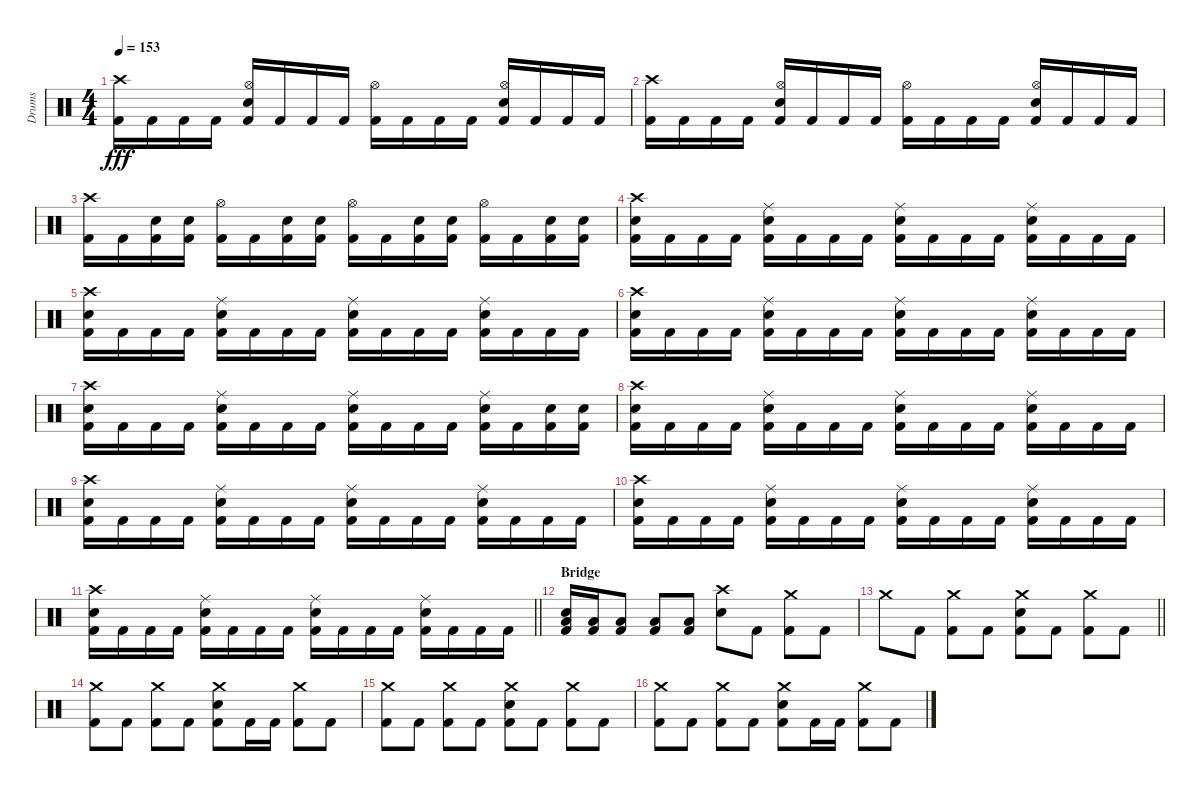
\track ("Drums" "Drums") {instrument percussion}
\staff {score}
\articulation defaults
\ts (4 4)
\tempo 153
\clef neutral
\ks c
("Crash high (hit)" "Kick (hit) 2").16{dy fff} "Kick (hit) 2".16 "Kick (hit) 2".16 "Kick (hit) 2".16 ("Hi-Hat (open)" "Snare (hit) 2" "Kick (hit) 2").16 "Kick (hit) 2".16 "Kick (hit) 2".16 "Kick (hit) 2".16 ("Hi-Hat (open)" "Kick (hit) 2").16 "Kick (hit) 2".16 "Kick (hit) 2".16 "Kick (hit) 2".16 ("Hi-Hat (open)" "Snare (hit) 2" "Kick (hit) 2").16 "Kick (hit) 2".16 "Kick (hit) 2".16 "Kick (hit) 2".16 |
("Crash high (hit)" "Kick (hit) 2").16 "Kick (hit) 2".16 "Kick (hit) 2".16 "Kick (hit) 2".16 ("Hi-Hat (open)" "Snare (hit) 2" "Kick (hit) 2").16 "Kick (hit) 2".16 "Kick (hit) 2".16 "Kick (hit) 2".16 ("Hi-Hat (open)" "Kick (hit) 2").16 "Kick (hit) 2".16 "Kick (hit) 2".16 "Kick (hit) 2".16 ("Hi-Hat (open)" "Snare (hit) 2" "Kick (hit) 2").16 "Kick (hit) 2".16 "Kick (hit) 2".16 "Kick (hit) 2".16 |
("Crash high (hit)" "Kick (hit) 2").16 "Kick (hit) 2".16 ("Snare (hit) 2" "Kick (hit) 2").16 ("Snare (hit) 2" "Kick (hit) 2").16 ("Hi-Hat (open)" "Kick (hit) 2").16 "Kick (hit) 2".16 ("Snare (hit) 2" "Kick (hit) 2").16 ("Snare (hit) 2" "Kick (hit) 2").16 ("Hi-Hat (open)" "Kick (hit) 2").16 "Kick (hit) 2".16 ("Snare (hit) 2" "Kick (hit) 2").16 ("Snare (hit) 2" "Kick (hit) 2").16 ("Hi-Hat (open)" "Kick (hit) 2").16 "Kick (hit) 2".16 ("Snare (hit) 2" "Kick (hit) 2").16 ("Snare (hit) 2" "Kick (hit) 2").16 |
("Crash high (hit)" "Snare (hit) 2" "Kick (hit) 2").16 "Kick (hit) 2".16 "Kick (hit) 2".16 "Kick (hit) 2".16 ("Ride (middle)" "Snare (hit) 2" "Kick (hit) 2").16 "Kick (hit) 2".16 "Kick (hit) 2".16 "Kick (hit) 2".16 ("Ride (middle)" "Snare (hit) 2" "Kick (hit) 2").16 "Kick (hit) 2".16 "Kick (hit) 2".16 "Kick (hit) 2".16 ("Ride (middle)" "Snare (hit) 2" "Kick (hit) 2").16 "Kick (hit) 2".16 "Kick (hit) 2".16 "Kick (hit) 2".16 |
("Crash high (hit)" "Snare (hit) 2" "Kick (hit) 2").16 "Kick (hit) 2".16 "Kick (hit) 2".16 "Kick (hit) 2".16 ("Ride (middle)" "Snare (hit) 2" "Kick (hit) 2").16 "Kick (hit) 2".16 "Kick (hit) 2".16 "Kick (hit) 2".16 ("Ride (middle)" "Snare (hit) 2" "Kick (hit) 2").16 "Kick (hit) 2".16 "Kick (hit) 2".16 "Kick (hit) 2".16 ("Ride (middle)" "Snare (hit) 2" "Kick (hit) 2").16 "Kick (hit) 2".16 "Kick (hit) 2".16 "Kick (hit) 2".16 |
("Crash high (hit)" "Snare (hit) 2" "Kick (hit) 2").16 "Kick (hit) 2".16 "Kick (hit) 2".16 "Kick (hit) 2".16 ("Ride (middle)" "Snare (hit) 2" "Kick (hit) 2").16 "Kick (hit) 2".16 "Kick (hit) 2".16 "Kick (hit) 2".16 ("Ride (middle)" "Snare (hit) 2" "Kick (hit) 2").16 "Kick (hit) 2".16 "Kick (hit) 2".16 "Kick (hit) 2".16 ("Ride (middle)" "Snare (hit) 2" "Kick (hit) 2").16 "Kick (hit) 2".16 "Kick (hit) 2".16 "Kick (hit) 2".16 |
("Crash high (hit)" "Snare (hit) 2" "Kick (hit) 2").16 "Kick (hit) 2".16 "Kick (hit) 2".16 "Kick (hit) 2".16 ("Ride (middle)" "Snare (hit) 2" "Kick (hit) 2").16 "Kick (hit) 2".16 "Kick (hit) 2".16 "Kick (hit) 2".16 ("Ride (middle)" "Snare (hit) 2" "Kick (hit) 2").16 "Kick (hit) 2".16 "Kick (hit) 2".16 "Kick (hit) 2".16 ("Ride (middle)" "Snare (hit) 2" "Kick (hit) 2").16 "Kick (hit) 2".16 ("Snare (hit) 2" "Kick (hit) 2").16 ("Snare (hit) 2" "Kick (hit) 2").16 |
("Crash high (hit)" "Snare (hit) 2" "Kick (hit) 2").16 "Kick (hit) 2".16 "Kick (hit) 2".16 "Kick (hit) 2".16 ("Ride (middle)" "Snare (hit) 2" "Kick (hit) 2").16 "Kick (hit) 2".16 "Kick (hit) 2".16 "Kick (hit) 2".16 ("Ride (middle)" "Snare (hit) 2" "Kick (hit) 2").16 "Kick (hit) 2".16 "Kick (hit) 2".16 "Kick (hit) 2".16 ("Ride (middle)" "Snare (hit) 2" "Kick (hit) 2").16 "Kick (hit) 2".16 "Kick (hit) 2".16 "Kick (hit) 2".16 |
("Crash high (hit)" "Snare (hit) 2" "Kick (hit) 2").16 "Kick (hit) 2".16 "Kick (hit) 2".16 "Kick (hit) 2".16 ("Ride (middle)" "Snare (hit) 2" "Kick (hit) 2").16 "Kick (hit) 2".16 "Kick (hit) 2".16 "Kick (hit) 2".16 ("Ride (middle)" "Snare (hit) 2" "Kick (hit) 2").16 "Kick (hit) 2".16 "Kick (hit) 2".16 "Kick (hit) 2".16 ("Ride (middle)" "Snare (hit) 2" "Kick (hit) 2").16 "Kick (hit) 2".16 "Kick (hit) 2".16 "Kick (hit) 2".16 |
("Crash high (hit)" "Snare (hit) 2" "Kick (hit) 2").16 "Kick (hit) 2".16 "Kick (hit) 2".16 "Kick (hit) 2".16 ("Ride (middle)" "Snare (hit) 2" "Kick (hit) 2").16 "Kick (hit) 2".16 "Kick (hit) 2".16 "Kick (hit) 2".16 ("Ride (middle)" "Snare (hit) 2" "Kick (hit) 2").16 "Kick (hit) 2".16 "Kick (hit) 2".16 "Kick (hit) 2".16 ("Ride (middle)" "Snare (hit) 2" "Kick (hit) 2").16 "Kick (hit) 2".16 "Kick (hit) 2".16 "Kick (hit) 2".16 |
\barLineRight lightlight
("Crash high (hit)" "Snare (hit) 2" "Kick (hit) 2").16 "Kick (hit) 2".16 "Kick (hit) 2".16 "Kick (hit) 2".16 ("Ride (middle)" "Snare (hit) 2" "Kick (hit) 2").16 "Kick (hit) 2".16 "Kick (hit) 2".16 "Kick (hit) 2".16 ("Ride (middle)" "Snare (hit) 2" "Kick (hit) 2").16 "Kick (hit) 2".16 "Kick (hit) 2".16 "Kick (hit) 2".16 ("Ride (middle)" "Snare (hit) 2" "Kick (hit) 2").16 "Kick (hit) 2".16 "Kick (hit) 2".16 "Kick (hit) 2".16 |
\section ("" "Bridge ")
("Low Floor Tom (hit)" "Snare (hit) 2" "Kick (hit) 2").16 ("Low Floor Tom (hit)" "Kick (hit) 2").16 ("Low Floor Tom (hit)" "Kick (hit) 2").8 ("Low Floor Tom (hit)" "Kick (hit) 2").8 ("Low Floor Tom (hit)" "Kick (hit) 2").8 ("Crash high (hit)" "Snare (hit) 2").8 "Kick (hit) 2".8 ("Crash medium (hit)" "Kick (hit) 2").8 "Kick (hit) 2".8 |
\barLineRight lightlight "Crash medium (hit)".8 "Kick (hit) 2".8
("Crash medium (hit)" "Kick (hit) 2").8 "Kick (hit) 2".8 ("Crash medium (hit)" "Snare (hit) 2" "Kick (hit) 2").8 "Kick (hit) 2".8 ("Crash medium (hit)" "Kick (hit) 2").8 "Kick (hit) 2".8 |
("Crash medium (hit)" "Kick (hit) 2").8 "Kick (hit) 2".8 ("Crash medium (hit)" "Kick (hit) 2").8 "Kick (hit) 2".8 ("Crash medium (hit)" "Snare (hit) 2" "Kick (hit) 2").8 "Kick (hit) 2".16 "Kick (hit) 2".16 ("Crash medium (hit)" "Kick (hit) 2").8 "Kick (hit) 2".8 |
("Crash medium (hit)" "Kick (hit) 2").8 "Kick (hit) 2".8 ("Crash medium (hit)" "Kick (hit) 2").8 "Kick (hit) 2".8 ("Crash medium (hit)" "Snare (hit) 2" "Kick (hit) 2").8 "Kick (hit) 2".8 ("Crash medium (hit)" "Kick (hit) 2").8 "Kick (hit) 2".8 |
("Crash medium (hit)" "Kick (hit) 2").8 "Kick (hit) 2".8 ("Crash medium (hit)" "Kick (hit) 2").8 "Kick (hit) 2".8 ("Crash medium (hit)" "Snare (hit) 2" "Kick (hit) 2").8 "Kick (hit) 2".16 "Kick (hit) 2".16 ("Crash medium (hit)" "Kick (hit) 2").8 "Kick (hit) 2".8
